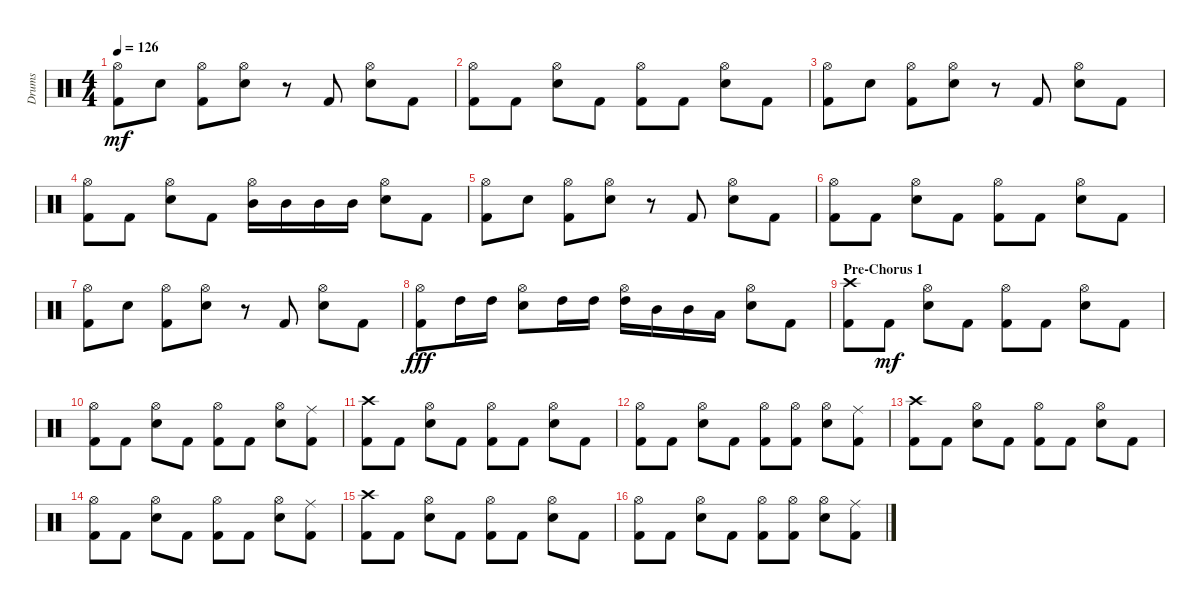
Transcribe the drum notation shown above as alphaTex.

\track ("Drums" "Drums") {instrument percussion}
\staff {score}
\articulation defaults
\ts (4 4)
\tempo 126
\clef neutral
\ks c
("Hi-Hat (open)" "Kick (hit) 2").8{dy mf} "Electric Snare (hit)".8 ("Hi-Hat (open)" "Kick (hit) 2").8 ("Hi-Hat (open)" "Electric Snare (hit)").8 r.8 "Kick (hit) 2".8 ("Hi-Hat (open)" "Electric Snare (hit)").8 "Kick (hit) 2".8 |
("Hi-Hat (open)" "Kick (hit) 2").8 "Kick (hit) 2".8 ("Hi-Hat (open)" "Electric Snare (hit)").8 "Kick (hit) 2".8 ("Hi-Hat (open)" "Kick (hit) 2").8 "Kick (hit) 2".8 ("Hi-Hat (open)" "Electric Snare (hit)").8 "Kick (hit) 2".8 |
("Hi-Hat (open)" "Kick (hit) 2").8 "Electric Snare (hit)".8 ("Hi-Hat (open)" "Kick (hit) 2").8 ("Hi-Hat (open)" "Electric Snare (hit)").8 r.8 "Kick (hit) 2".8 ("Hi-Hat (open)" "Electric Snare (hit)").8 "Kick (hit) 2".8 |
("Hi-Hat (open)" "Kick (hit) 2").8 "Kick (hit) 2".8 ("Hi-Hat (open)" "Electric Snare (hit)").8 "Kick (hit) 2".8 ("Hi-Hat (open)" "Mid Tom (hit)").16 "Mid Tom (hit)".16 "Mid Tom (hit)".16 "Mid Tom (hit)".16 ("Hi-Hat (open)" "Electric Snare (hit)").8 "Kick (hit) 2".8 |
("Hi-Hat (open)" "Kick (hit) 2").8 "Electric Snare (hit)".8 ("Hi-Hat (open)" "Kick (hit) 2").8 ("Hi-Hat (open)" "Electric Snare (hit)").8 r.8 "Kick (hit) 2".8 ("Hi-Hat (open)" "Electric Snare (hit)").8 "Kick (hit) 2".8 |
("Hi-Hat (open)" "Kick (hit) 2").8 "Kick (hit) 2".8 ("Hi-Hat (open)" "Electric Snare (hit)").8 "Kick (hit) 2".8 ("Hi-Hat (open)" "Kick (hit) 2").8 "Kick (hit) 2".8 ("Hi-Hat (open)" "Electric Snare (hit)").8 "Kick (hit) 2".8 |
("Hi-Hat (open)" "Kick (hit) 2").8 "Electric Snare (hit)".8 ("Hi-Hat (open)" "Kick (hit) 2").8 ("Hi-Hat (open)" "Electric Snare (hit)").8 r.8 "Kick (hit) 2".8 ("Hi-Hat (open)" "Electric Snare (hit)").8 "Kick (hit) 2".8 |
("Hi-Hat (open)" "Kick (hit) 2").8{dy fff} "High Tom (hit)".16 "High Tom (hit)".16 ("Hi-Hat (open)" "Electric Snare (hit)").8 "High Tom (hit)".16 "High Tom (hit)".16 ("Hi-Hat (open)" "High Tom (hit)").16 "Mid Tom (hit)".16 "Mid Tom (hit)".16 "Low Tom (hit)".16 ("Hi-Hat (open)" "Electric Snare (hit)").8 "Kick (hit) 2".8 |
\section ("" "Pre-Chorus 1")
("Crash high (hit)" "Kick (hit) 2").8 "Kick (hit) 2".8{dy mf} ("Hi-Hat (open)" "Electric Snare (hit)").8 "Kick (hit) 2".8 ("Hi-Hat (open)" "Kick (hit) 2").8 "Kick (hit) 2".8 ("Hi-Hat (open)" "Electric Snare (hit)").8 "Kick (hit) 2".8 |
("Hi-Hat (open)" "Kick (hit) 2").8 "Kick (hit) 2".8 ("Hi-Hat (open)" "Electric Snare (hit)").8 "Kick (hit) 2".8 ("Hi-Hat (open)" "Kick (hit) 2").8 "Kick (hit) 2".8 ("Hi-Hat (open)" "Electric Snare (hit)").8 ("Ride (middle)" "Kick (hit) 2").8 |
("Crash high (hit)" "Kick (hit) 2").8 "Kick (hit) 2".8 ("Hi-Hat (open)" "Electric Snare (hit)").8 "Kick (hit) 2".8 ("Hi-Hat (open)" "Kick (hit) 2").8 "Kick (hit) 2".8 ("Hi-Hat (open)" "Electric Snare (hit)").8 "Kick (hit) 2".8 |
("Hi-Hat (open)" "Kick (hit) 2").8 "Kick (hit) 2".8 ("Hi-Hat (open)" "Electric Snare (hit)").8 "Kick (hit) 2".8 ("Hi-Hat (open)" "Kick (hit) 2").8 ("Hi-Hat (open)" "Kick (hit) 2").8 ("Hi-Hat (open)" "Electric Snare (hit)").8 ("Ride (middle)" "Kick (hit) 2").8 |
("Crash high (hit)" "Kick (hit) 2").8 "Kick (hit) 2".8 ("Hi-Hat (open)" "Electric Snare (hit)").8 "Kick (hit) 2".8 ("Hi-Hat (open)" "Kick (hit) 2").8 "Kick (hit) 2".8 ("Hi-Hat (open)" "Electric Snare (hit)").8 "Kick (hit) 2".8 |
("Hi-Hat (open)" "Kick (hit) 2").8 "Kick (hit) 2".8 ("Hi-Hat (open)" "Electric Snare (hit)").8 "Kick (hit) 2".8 ("Hi-Hat (open)" "Kick (hit) 2").8 "Kick (hit) 2".8 ("Hi-Hat (open)" "Electric Snare (hit)").8 ("Ride (middle)" "Kick (hit) 2").8 |
("Crash high (hit)" "Kick (hit) 2").8 "Kick (hit) 2".8 ("Hi-Hat (open)" "Electric Snare (hit)").8 "Kick (hit) 2".8 ("Hi-Hat (open)" "Kick (hit) 2").8 "Kick (hit) 2".8 ("Hi-Hat (open)" "Electric Snare (hit)").8 "Kick (hit) 2".8 |
("Hi-Hat (open)" "Kick (hit) 2").8 "Kick (hit) 2".8 ("Hi-Hat (open)" "Electric Snare (hit)").8 "Kick (hit) 2".8 ("Hi-Hat (open)" "Kick (hit) 2").8 ("Hi-Hat (open)" "Kick (hit) 2").8 ("Hi-Hat (open)" "Electric Snare (hit)").8 ("Ride (middle)" "Kick (hit) 2").8
